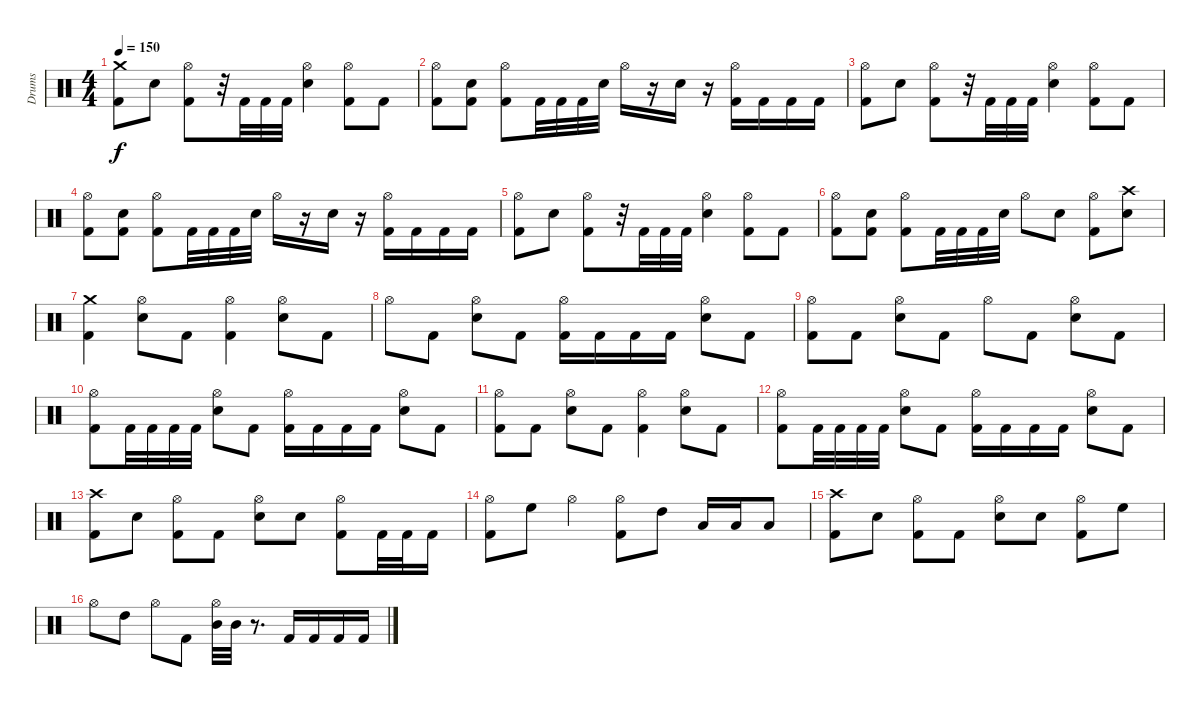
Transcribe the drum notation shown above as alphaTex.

\track ("Drums" "Drums") {instrument percussion}
\staff {score}
\articulation defaults
\ts (4 4)
\tempo 150
\clef neutral
\ks c
("Crash medium (hit)" "Kick (hit) 2").8{dy f} "Snare (hit) 2".8 ("Hi-Hat (open)" "Kick (hit) 2").8 r.32 "Kick (hit) 2".32 "Kick (hit) 2".32 "Kick (hit) 2".32 ("Hi-Hat (open)" "Snare (hit) 2").4 ("Hi-Hat (open)" "Kick (hit) 2").8 "Kick (hit) 2".8 |
("Hi-Hat (open)" "Kick (hit) 2").8 ("Snare (hit) 2" "Kick (hit) 2").8 ("Hi-Hat (open)" "Kick (hit) 2").8 "Kick (hit) 2".32 "Kick (hit) 2".32 "Kick (hit) 2".32 "Snare (hit) 2".32 "Hi-Hat (open)".16 r.16 "Snare (hit) 2".16 r.16 ("Hi-Hat (open)" "Kick (hit) 2").16 "Kick (hit) 2".16 "Kick (hit) 2".16 "Kick (hit) 2".16 |
("Hi-Hat (open)" "Kick (hit) 2").8 "Snare (hit) 2".8 ("Hi-Hat (open)" "Kick (hit) 2").8 r.32 "Kick (hit) 2".32 "Kick (hit) 2".32 "Kick (hit) 2".32 ("Hi-Hat (open)" "Snare (hit) 2").4 ("Hi-Hat (open)" "Kick (hit) 2").8 "Kick (hit) 2".8 |
("Hi-Hat (open)" "Kick (hit) 2").8 ("Snare (hit) 2" "Kick (hit) 2").8 ("Hi-Hat (open)" "Kick (hit) 2").8 "Kick (hit) 2".32 "Kick (hit) 2".32 "Kick (hit) 2".32 "Snare (hit) 2".32 "Hi-Hat (open)".16 r.16 "Snare (hit) 2".16 r.16 ("Hi-Hat (open)" "Kick (hit) 2").16 "Kick (hit) 2".16 "Kick (hit) 2".16 "Kick (hit) 2".16 |
("Hi-Hat (open)" "Kick (hit) 2").8 "Snare (hit) 2".8 ("Hi-Hat (open)" "Kick (hit) 2").8 r.32 "Kick (hit) 2".32 "Kick (hit) 2".32 "Kick (hit) 2".32 ("Hi-Hat (open)" "Snare (hit) 2").4 ("Hi-Hat (open)" "Kick (hit) 2").8 "Kick (hit) 2".8 |
("Hi-Hat (open)" "Kick (hit) 2").8 ("Snare (hit) 2" "Kick (hit) 2").8 ("Hi-Hat (open)" "Kick (hit) 2").8 "Kick (hit) 2".32 "Kick (hit) 2".32 "Kick (hit) 2".32 "Snare (hit) 2".32 "Hi-Hat (open)".8 "Snare (hit) 2".8 ("Hi-Hat (open)" "Kick (hit) 2").8 ("Crash high (hit)" "Snare (hit) 2").8 |
("Crash medium (hit)" "Kick (hit) 2").4 ("Hi-Hat (open)" "Snare (hit) 2").8 "Kick (hit) 2".8 ("Hi-Hat (open)" "Kick (hit) 2").4 ("Hi-Hat (open)" "Snare (hit) 2").8 "Kick (hit) 2".8 |
"Hi-Hat (open)".8 "Kick (hit) 2".8 ("Hi-Hat (open)" "Snare (hit) 2").8 "Kick (hit) 2".8 ("Hi-Hat (open)" "Kick (hit) 2").16 "Kick (hit) 2".16 "Kick (hit) 2".16 "Kick (hit) 2".16 ("Hi-Hat (open)" "Snare (hit) 2").8 "Kick (hit) 2".8 |
("Hi-Hat (open)" "Kick (hit) 2").8 "Kick (hit) 2".8 ("Hi-Hat (open)" "Snare (hit) 2").8 "Kick (hit) 2".8 "Hi-Hat (open)".8 "Kick (hit) 2".8 ("Hi-Hat (open)" "Snare (hit) 2").8 "Kick (hit) 2".8 |
("Hi-Hat (open)" "Kick (hit) 2").8 "Kick (hit) 2".32 "Kick (hit) 2".32 "Kick (hit) 2".32 "Kick (hit) 2".32 ("Hi-Hat (open)" "Snare (hit) 2").8 "Kick (hit) 2".8 ("Hi-Hat (open)" "Kick (hit) 2").16 "Kick (hit) 2".16 "Kick (hit) 2".16 "Kick (hit) 2".16 ("Hi-Hat (open)" "Snare (hit) 2").8 "Kick (hit) 2".8 |
("Hi-Hat (open)" "Kick (hit) 2").8 "Kick (hit) 2".8 ("Hi-Hat (open)" "Snare (hit) 2").8 "Kick (hit) 2".8 ("Hi-Hat (open)" "Kick (hit) 2").4 ("Hi-Hat (open)" "Snare (hit) 2").8 "Kick (hit) 2".8 |
("Hi-Hat (open)" "Kick (hit) 2").8 "Kick (hit) 2".32 "Kick (hit) 2".32 "Kick (hit) 2".32 "Kick (hit) 2".32 ("Hi-Hat (open)" "Snare (hit) 2").8 "Kick (hit) 2".8 ("Hi-Hat (open)" "Kick (hit) 2").16 "Kick (hit) 2".16 "Kick (hit) 2".16 "Kick (hit) 2".16 ("Hi-Hat (open)" "Snare (hit) 2").8 "Kick (hit) 2".8 |
("Crash high (hit)" "Kick (hit) 2").8 "Snare (hit) 2".8 ("Hi-Hat (open)" "Kick (hit) 2").8 "Kick (hit) 2".8 ("Hi-Hat (open)" "Snare (hit) 2").8 "Snare (hit) 2".8 ("Hi-Hat (open)" "Kick (hit) 2").8 "Kick (hit) 2".32 "Kick (hit) 2".32 "Kick (hit) 2".16 |
("Hi-Hat (open)" "Kick (hit) 2").8 "High Floor Tom (hit)".8 "Hi-Hat (open)".4 ("Hi-Hat (open)" "Kick (hit) 2").8 "High Tom (hit)".8 "Low Tom (hit)".16 "Low Tom (hit)".16 "Low Tom (hit)".8 |
("Crash high (hit)" "Kick (hit) 2").8 "Snare (hit) 2".8 ("Hi-Hat (open)" "Kick (hit) 2").8 "Kick (hit) 2".8 ("Hi-Hat (open)" "Snare (hit) 2").8 "Snare (hit) 2".8 ("Hi-Hat (open)" "Kick (hit) 2").8 "High Floor Tom (hit)".8 |
"Hi-Hat (open)".8 "High Tom (hit)".8 "Hi-Hat (open)".8 "Kick (hit) 2".8 ("Hi-Hat (open)" "Mid Tom (hit)").32 "Mid Tom (hit)".32 r.8{d} "Kick (hit) 2".16 "Kick (hit) 2".16 "Kick (hit) 2".16 "Kick (hit) 2".16
